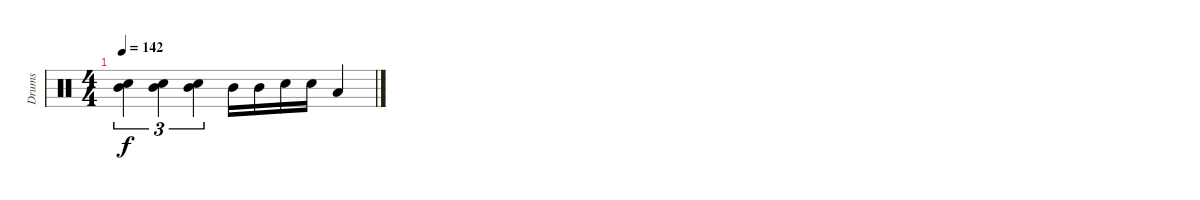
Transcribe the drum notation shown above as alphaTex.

\track ("Drums" "Drums") {instrument percussion}
\staff {score}
\articulation defaults
\ts (4 4)
\tempo 142
\clef neutral
\ks aminor
("Mid Tom (hit)" "Snare (hit) 2").4{tu (3 2) dy f} ("Mid Tom (hit)" "Snare (hit) 2").4{tu (3 2)} ("Mid Tom (hit)" "Snare (hit) 2").4{tu (3 2)} "Mid Tom (hit)".16 "Mid Tom (hit)".16 "Snare (hit) 2".16 "Snare (hit) 2".16 "Low Floor Tom (hit)".4
